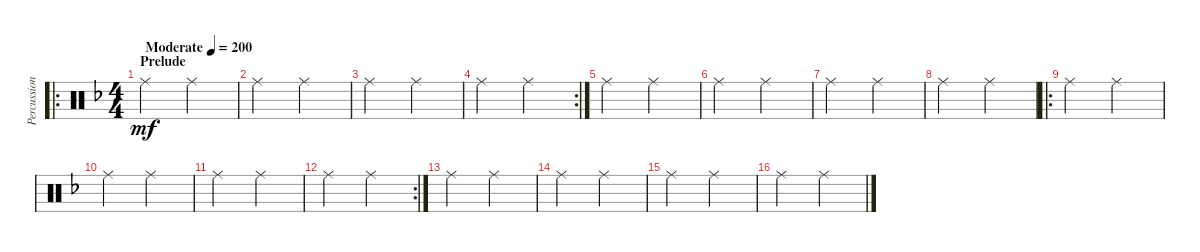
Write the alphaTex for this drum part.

\track ("Percussion" "Percussion") {instrument percussion}
\staff {score}
\articulation defaults
\ro
\ts (4 4)
\section ("" "Prelude")
\tempo (200 "Moderate")
\clef neutral
\ks dminor "Ride (middle)".2{dy mf} "Ride (middle)".2
|
"Ride (middle)".2 "Ride (middle)".2 |
"Ride (middle)".2 "Ride (middle)".2 |
\rc 2 "Ride (middle)".2 "Ride (middle)".2
|
"Ride (middle)".2 "Ride (middle)".2 |
"Ride (middle)".2 "Ride (middle)".2 |
"Ride (middle)".2 "Ride (middle)".2 |
"Ride (middle)".2 "Ride (middle)".2 |
\ro "Ride (middle)".2 "Ride (middle)".2
|
"Ride (middle)".2 "Ride (middle)".2 |
"Ride (middle)".2 "Ride (middle)".2 |
\rc 2 "Ride (middle)".2 "Ride (middle)".2
|
"Ride (middle)".2 "Ride (middle)".2 |
"Ride (middle)".2 "Ride (middle)".2 |
"Ride (middle)".2 "Ride (middle)".2 |
"Ride (middle)".2 "Ride (middle)".2
